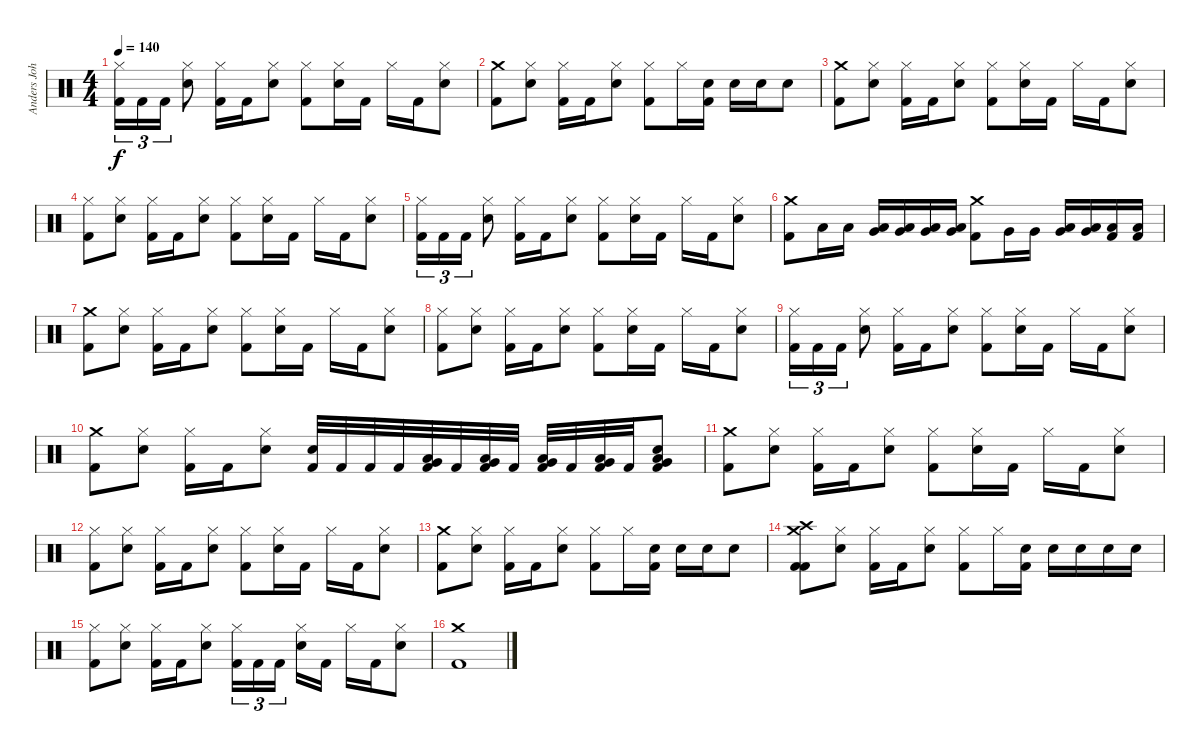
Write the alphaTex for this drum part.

\track ("Anders Johansson :: Drums" "Anders Joh") {instrument percussion}
\staff {score}
\articulation defaults
\ts (4 4)
\tempo 140
\clef neutral
\ks c
("Hi-Hat (closed)" "Kick (hit) 2").16{tu (3 2) dy f} "Kick (hit) 2".16{tu (3 2)} "Kick (hit) 2".16{tu (3 2)} ("Hi-Hat (closed)" "Snare (hit) 2").8 ("Hi-Hat (closed)" "Kick (hit) 2").16 "Kick (hit) 2".16 ("Hi-Hat (closed)" "Snare (hit) 2").8 ("Hi-Hat (closed)" "Kick (hit) 2").8 ("Hi-Hat (closed)" "Snare (hit) 2").16 "Kick (hit) 2".16 "Hi-Hat (closed)".16 "Kick (hit) 2".16 ("Hi-Hat (closed)" "Snare (hit) 2").8 |
("Crash medium (hit)" "Kick (hit) 2").8 ("Hi-Hat (closed)" "Snare (hit) 2").8 ("Hi-Hat (closed)" "Kick (hit) 2").16 "Kick (hit) 2".16 ("Hi-Hat (closed)" "Snare (hit) 2").8 ("Hi-Hat (closed)" "Kick (hit) 2").8 "Hi-Hat (closed)".16 ("Snare (hit) 2" "Kick (hit) 2").16 "Snare (hit) 2".16 "Snare (hit) 2".16 "Snare (hit) 2".8 |
("Crash medium (hit)" "Kick (hit) 2").8 ("Hi-Hat (closed)" "Snare (hit) 2").8 ("Hi-Hat (closed)" "Kick (hit) 2").16 "Kick (hit) 2".16 ("Hi-Hat (closed)" "Snare (hit) 2").8 ("Hi-Hat (closed)" "Kick (hit) 2").8 ("Hi-Hat (closed)" "Snare (hit) 2").16 "Kick (hit) 2".16 "Hi-Hat (closed)".16 "Kick (hit) 2".16 ("Hi-Hat (closed)" "Snare (hit) 2").8 |
("Hi-Hat (closed)" "Kick (hit) 2").8 ("Hi-Hat (closed)" "Snare (hit) 2").8 ("Hi-Hat (closed)" "Kick (hit) 2").16 "Kick (hit) 2".16 ("Hi-Hat (closed)" "Snare (hit) 2").8 ("Hi-Hat (closed)" "Kick (hit) 2").8 ("Hi-Hat (closed)" "Snare (hit) 2").16 "Kick (hit) 2".16 "Hi-Hat (closed)".16 "Kick (hit) 2".16 ("Hi-Hat (closed)" "Snare (hit) 2").8 |
("Hi-Hat (closed)" "Kick (hit) 2").16{tu (3 2)} "Kick (hit) 2".16{tu (3 2)} "Kick (hit) 2".16{tu (3 2)} ("Hi-Hat (closed)" "Snare (hit) 2").8 ("Hi-Hat (closed)" "Kick (hit) 2").16 "Kick (hit) 2".16 ("Hi-Hat (closed)" "Snare (hit) 2").8 ("Hi-Hat (closed)" "Kick (hit) 2").8 ("Hi-Hat (closed)" "Snare (hit) 2").16 "Kick (hit) 2".16 "Hi-Hat (closed)".16 "Kick (hit) 2".16 ("Hi-Hat (closed)" "Snare (hit) 2").8 |
("Crash medium (hit)" "Kick (hit) 2").8 "Low Tom (hit)".16 "Low Tom (hit)".16 ("Low Tom (hit)" "Very Low Tom (hit)").16 ("Low Tom (hit)" "Very Low Tom (hit)").16 ("Very Low Tom (hit)" "Low Floor Tom (hit)").16 ("Very Low Tom (hit)" "Low Floor Tom (hit)").16 ("Crash medium (hit)" "Kick (hit) 2").8 "Very Low Tom (hit)".16 "Very Low Tom (hit)".16 ("Very Low Tom (hit)" "Low Floor Tom (hit)").16 ("Very Low Tom (hit)" "Low Floor Tom (hit)").16 ("Low Floor Tom (hit)" "Kick (hit) 2").16 ("Low Floor Tom (hit)" "Kick (hit) 2").16 |
("Crash medium (hit)" "Kick (hit) 2").8 ("Hi-Hat (closed)" "Snare (hit) 2").8 ("Hi-Hat (closed)" "Kick (hit) 2").16 "Kick (hit) 2".16 ("Hi-Hat (closed)" "Snare (hit) 2").8 ("Hi-Hat (closed)" "Kick (hit) 2").8 ("Hi-Hat (closed)" "Snare (hit) 2").16 "Kick (hit) 2".16 "Hi-Hat (closed)".16 "Kick (hit) 2".16 ("Hi-Hat (closed)" "Snare (hit) 2").8 |
("Hi-Hat (closed)" "Kick (hit) 2").8 ("Hi-Hat (closed)" "Snare (hit) 2").8 ("Hi-Hat (closed)" "Kick (hit) 2").16 "Kick (hit) 2".16 ("Hi-Hat (closed)" "Snare (hit) 2").8 ("Hi-Hat (closed)" "Kick (hit) 2").8 ("Hi-Hat (closed)" "Snare (hit) 2").16 "Kick (hit) 2".16 "Hi-Hat (closed)".16 "Kick (hit) 2".16 ("Hi-Hat (closed)" "Snare (hit) 2").8 |
("Hi-Hat (closed)" "Kick (hit) 2").16{tu (3 2)} "Kick (hit) 2".16{tu (3 2)} "Kick (hit) 2".16{tu (3 2)} ("Hi-Hat (closed)" "Snare (hit) 2").8 ("Hi-Hat (closed)" "Kick (hit) 2").16 "Kick (hit) 2".16 ("Hi-Hat (closed)" "Snare (hit) 2").8 ("Hi-Hat (closed)" "Kick (hit) 2").8 ("Hi-Hat (closed)" "Snare (hit) 2").16 "Kick (hit) 2".16 "Hi-Hat (closed)".16 "Kick (hit) 2".16 ("Hi-Hat (closed)" "Snare (hit) 2").8 |
("Crash medium (hit)" "Kick (hit) 2").8 ("Hi-Hat (closed)" "Snare (hit) 2").8 ("Hi-Hat (closed)" "Kick (hit) 2").16 "Kick (hit) 2".16 ("Hi-Hat (closed)" "Snare (hit) 2").8 ("Snare (hit) 2" "Kick (hit) 2").32 "Kick (hit) 2".32 "Kick (hit) 2".32 "Kick (hit) 2".32 ("Low Tom (hit)" "Very Low Tom (hit)" "Kick (hit) 2").32 "Kick (hit) 2".32 ("Low Tom (hit)" "Very Low Tom (hit)" "Kick (hit) 2").32 "Kick (hit) 2".32 ("Low Tom (hit)" "Very Low Tom (hit)" "Kick (hit) 2").32 "Kick (hit) 2".32 ("Low Tom (hit)" "Very Low Tom (hit)" "Kick (hit) 2").32 "Kick (hit) 2".32 ("Snare (hit) 2" "Low Tom (hit)" "Very Low Tom (hit)" "Kick (hit) 2").8 |
("Crash medium (hit)" "Kick (hit) 2").8 ("Hi-Hat (closed)" "Snare (hit) 2").8 ("Hi-Hat (closed)" "Kick (hit) 2").16 "Kick (hit) 2".16 ("Hi-Hat (closed)" "Snare (hit) 2").8 ("Hi-Hat (closed)" "Kick (hit) 2").8 ("Hi-Hat (closed)" "Snare (hit) 2").16 "Kick (hit) 2".16 "Hi-Hat (closed)".16 "Kick (hit) 2".16 ("Hi-Hat (closed)" "Snare (hit) 2").8 |
("Hi-Hat (closed)" "Kick (hit) 2").8 ("Hi-Hat (closed)" "Snare (hit) 2").8 ("Hi-Hat (closed)" "Kick (hit) 2").16 "Kick (hit) 2".16 ("Hi-Hat (closed)" "Snare (hit) 2").8 ("Hi-Hat (closed)" "Kick (hit) 2").8 ("Hi-Hat (closed)" "Snare (hit) 2").16 "Kick (hit) 2".16 "Hi-Hat (closed)".16 "Kick (hit) 2".16 ("Hi-Hat (closed)" "Snare (hit) 2").8 |
("Crash medium (hit)" "Kick (hit) 2").8 ("Hi-Hat (closed)" "Snare (hit) 2").8 ("Hi-Hat (closed)" "Kick (hit) 2").16 "Kick (hit) 2".16 ("Hi-Hat (closed)" "Snare (hit) 2").8 ("Hi-Hat (closed)" "Kick (hit) 2").8 "Hi-Hat (closed)".16 ("Snare (hit) 2" "Kick (hit) 2").16 "Snare (hit) 2".16 "Snare (hit) 2".16 "Snare (hit) 2".8 |
("Crash medium (hit)" "Crash high (hit)" "Kick (hit) 2" "Kick (hit) 2").8 ("Hi-Hat (closed)" "Snare (hit) 2").8 ("Hi-Hat (closed)" "Kick (hit) 2").16 "Kick (hit) 2".16 ("Hi-Hat (closed)" "Snare (hit) 2").8 ("Hi-Hat (closed)" "Kick (hit) 2").8 "Hi-Hat (closed)".16 ("Snare (hit) 2" "Kick (hit) 2").16 "Snare (hit) 2".16 "Snare (hit) 2".16 "Snare (hit) 2".16 "Snare (hit) 2".16 |
("Hi-Hat (closed)" "Kick (hit) 2").8 ("Hi-Hat (closed)" "Snare (hit) 2").8 ("Hi-Hat (closed)" "Kick (hit) 2").16 "Kick (hit) 2".16 ("Hi-Hat (closed)" "Snare (hit) 2").8 ("Hi-Hat (closed)" "Kick (hit) 2").16{tu (3 2)} "Kick (hit) 2".16{tu (3 2)} "Kick (hit) 2".16{tu (3 2)} ("Hi-Hat (closed)" "Snare (hit) 2").16 "Kick (hit) 2".16 "Hi-Hat (closed)".16 "Kick (hit) 2".16 ("Hi-Hat (closed)" "Snare (hit) 2").8 |
("Crash medium (hit)" "Kick (hit) 2").1
